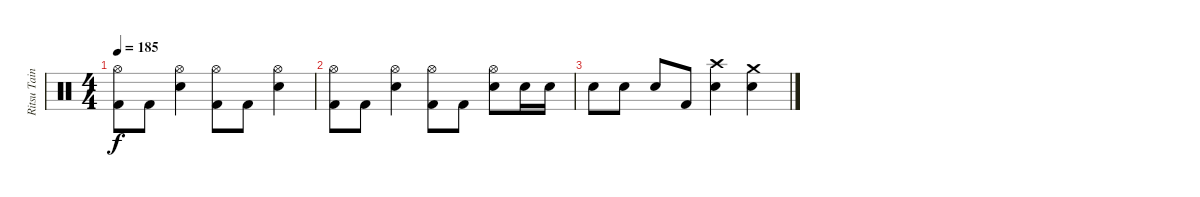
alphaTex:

\track ("Ritsu Tainaka" "Ritsu Tain") {instrument percussion}
\staff {score}
\articulation defaults
\ts (4 4)
\tempo 185
\clef neutral
\ks c
("Hi-Hat (open)" "Kick (hit) 2").8{dy f} "Kick (hit) 2".8 ("Hi-Hat (open)" "Snare (hit) 2").4 ("Hi-Hat (open)" "Kick (hit) 2").8 "Kick (hit) 2".8 ("Hi-Hat (open)" "Snare (hit) 2").4 |
("Hi-Hat (open)" "Kick (hit) 2").8 "Kick (hit) 2".8 ("Hi-Hat (open)" "Snare (hit) 2").4 ("Hi-Hat (open)" "Kick (hit) 2").8 "Kick (hit) 2".8 ("Hi-Hat (open)" "Snare (hit) 2").8 "Snare (hit) 2".16 "Snare (hit) 2".16 |
"Snare (hit) 2".8 "Snare (hit) 2".8 "Snare (hit) 2".8 "Kick (hit) 2".8 ("Crash high (hit)" "Snare (hit) 2").4 ("Crash medium (hit)" "Snare (hit) 2").4
